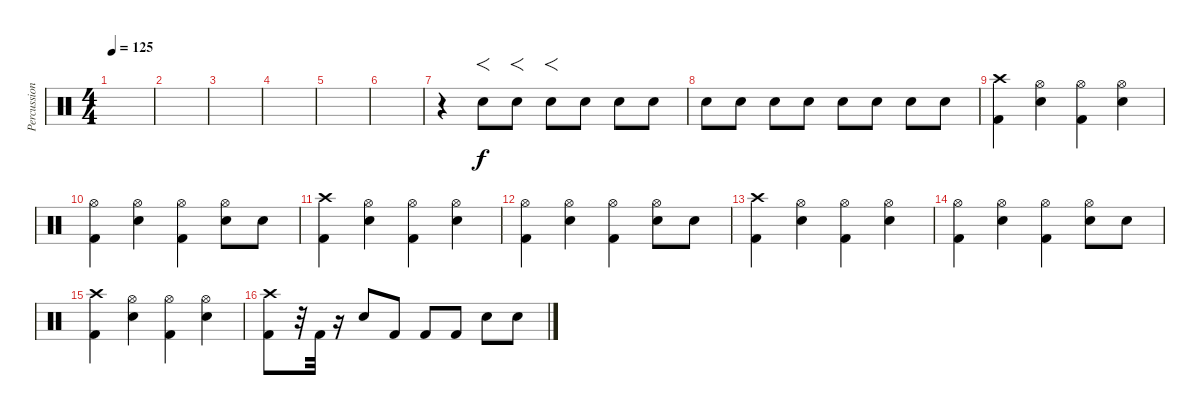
\track ("Percussion" "Percussion") {instrument percussion}
\staff {score}
\articulation defaults
\ts (4 4)
\tempo 125
\clef neutral
\ks c
|
|
|
|
|
|
r.4 "Snare (hit) 2".8{f} "Snare (hit) 2".8{f} "Snare (hit) 2".8{f} "Snare (hit) 2".8 "Snare (hit) 2".8 "Snare (hit) 2".8 |
"Snare (hit) 2".8 "Snare (hit) 2".8 "Snare (hit) 2".8 "Snare (hit) 2".8 "Snare (hit) 2".8 "Snare (hit) 2".8 "Snare (hit) 2".8 "Snare (hit) 2".8 |
("Crash high (hit)" "Kick (hit) 2").4 ("Hi-Hat (open)" "Snare (hit) 2").4 ("Hi-Hat (open)" "Kick (hit) 2").4 ("Hi-Hat (open)" "Snare (hit) 2").4 |
("Hi-Hat (open)" "Kick (hit) 2").4 ("Hi-Hat (open)" "Snare (hit) 2").4 ("Hi-Hat (open)" "Kick (hit) 2").4 ("Hi-Hat (open)" "Snare (hit) 2").8 "Snare (hit) 2".8 |
("Crash high (hit)" "Kick (hit) 2").4 ("Hi-Hat (open)" "Snare (hit) 2").4 ("Hi-Hat (open)" "Kick (hit) 2").4 ("Hi-Hat (open)" "Snare (hit) 2").4 |
("Hi-Hat (open)" "Kick (hit) 2").4 ("Hi-Hat (open)" "Snare (hit) 2").4 ("Hi-Hat (open)" "Kick (hit) 2").4 ("Hi-Hat (open)" "Snare (hit) 2").8 "Snare (hit) 2".8 |
("Crash high (hit)" "Kick (hit) 2").4 ("Hi-Hat (open)" "Snare (hit) 2").4 ("Hi-Hat (open)" "Kick (hit) 2").4 ("Hi-Hat (open)" "Snare (hit) 2").4 |
("Hi-Hat (open)" "Kick (hit) 2").4 ("Hi-Hat (open)" "Snare (hit) 2").4 ("Hi-Hat (open)" "Kick (hit) 2").4 ("Hi-Hat (open)" "Snare (hit) 2").8 "Snare (hit) 2".8 |
("Crash high (hit)" "Kick (hit) 2").4 ("Hi-Hat (open)" "Snare (hit) 2").4 ("Hi-Hat (open)" "Kick (hit) 2").4 ("Hi-Hat (open)" "Snare (hit) 2").4 |
("Crash high (hit)" "Kick (hit) 2").8 r.32 "Kick (hit) 2".32 r.16 "Snare (hit) 2".8 "Kick (hit) 2".8 "Kick (hit) 2".8 "Kick (hit) 2".8 "Snare (hit) 2".8 "Snare (hit) 2".8
